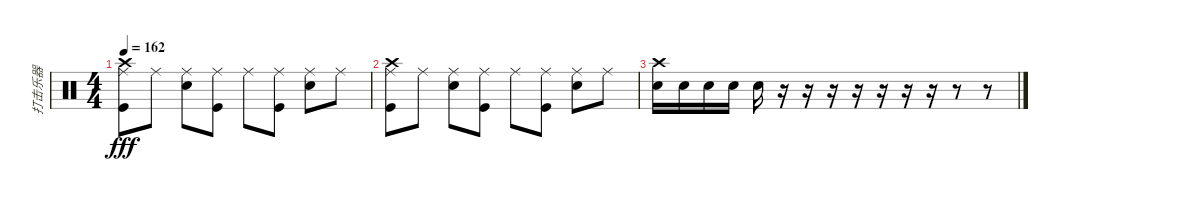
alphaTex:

\track ("打击乐器" "打击乐器") {instrument percussion}
\staff {score}
\articulation defaults
\ts (4 4)
\tempo 162
\clef neutral
\ks c
("Ride (middle)" "Kick (hit)" "Crash high (hit)").8{dy fff} "Ride (middle)".8 ("Ride (middle)" "Snare (hit) 2").8 ("Kick (hit)" "Ride (middle)").8 "Ride (middle)".8 ("Kick (hit)" "Ride (middle)").8 ("Ride (middle)" "Snare (hit) 2").8 "Ride (middle)".8 |
("Ride (middle)" "Kick (hit)" "Crash high (hit)").8 "Ride (middle)".8 ("Ride (middle)" "Snare (hit) 2").8 ("Kick (hit)" "Ride (middle)").8 "Ride (middle)".8 ("Kick (hit)" "Ride (middle)").8 ("Ride (middle)" "Snare (hit) 2").8 "Ride (middle)".8 |
("Snare (hit) 2" "Crash high (hit)").16 "Snare (hit) 2".16 "Snare (hit) 2".16 "Snare (hit) 2".16 "Snare (hit) 2".16 r.16 r.16 r.16 r.16 r.16 r.16 r.16 r.8 r.8
